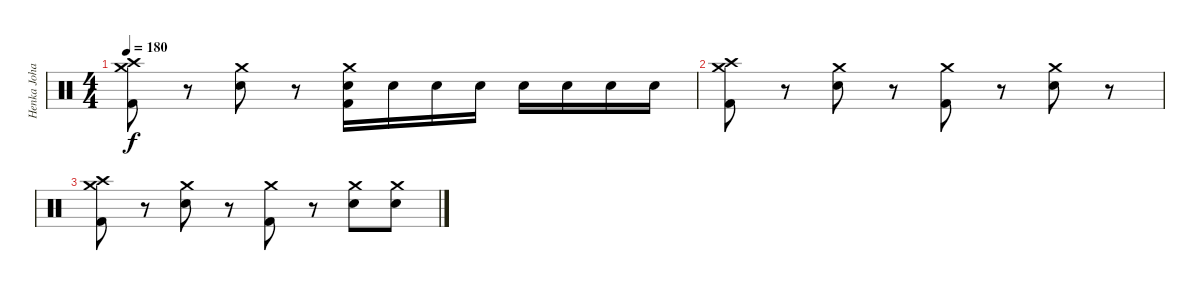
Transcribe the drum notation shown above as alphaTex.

\track ("Henka Johansson" "Henka Joha") {instrument percussion}
\staff {score}
\articulation defaults
\ts (4 4)
\tempo 180
\clef neutral
\ks c
("Crash medium (hit)" "Crash high (hit)" "Kick (hit) 2").8{dy f} r.8 ("Crash medium (hit)" "Snare (hit) 2").8 r.8 ("Crash medium (hit)" "Snare (hit) 2" "Kick (hit) 2").16 "Snare (hit) 2".16 "Snare (hit) 2".16 "Snare (hit) 2".16 "Snare (hit) 2".16 "Snare (hit) 2".16 "Snare (hit) 2".16 "Snare (hit) 2".16 |
("Crash medium (hit)" "Crash high (hit)" "Kick (hit) 2").8 r.8 ("Crash medium (hit)" "Snare (hit) 2").8 r.8 ("Crash medium (hit)" "Kick (hit) 2").8 r.8 ("Crash medium (hit)" "Snare (hit) 2").8 r.8 |
("Crash medium (hit)" "Crash high (hit)" "Kick (hit) 2").8 r.8 ("Crash medium (hit)" "Snare (hit) 2").8 r.8 ("Crash medium (hit)" "Kick (hit) 2").8 r.8 ("Crash medium (hit)" "Snare (hit) 2").8 ("Crash medium (hit)" "Snare (hit) 2").8
